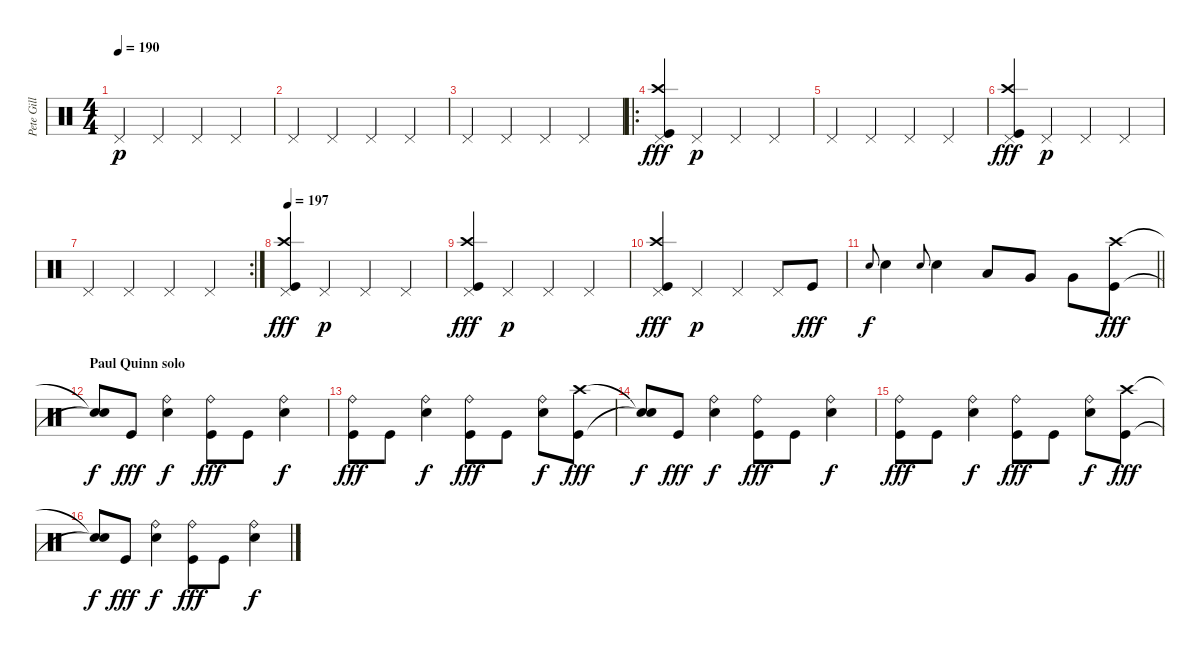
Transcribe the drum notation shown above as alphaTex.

\track ("Pete Gill" "Pete Gill") {instrument percussion}
\staff {score}
\articulation defaults
\ts (4 4)
\tempo 190
\clef neutral
\ks c "Pedal Hi-Hat (hit)".4{dy p} "Pedal Hi-Hat (hit)".4 "Pedal Hi-Hat (hit)".4 "Pedal Hi-Hat (hit)".4
|
"Pedal Hi-Hat (hit)".4 "Pedal Hi-Hat (hit)".4 "Pedal Hi-Hat (hit)".4 "Pedal Hi-Hat (hit)".4 |
"Pedal Hi-Hat (hit)".4 "Pedal Hi-Hat (hit)".4 "Pedal Hi-Hat (hit)".4 "Pedal Hi-Hat (hit)".4 |
\ro
("Pedal Hi-Hat (hit)" "Crash high (hit)" "Kick (hit)").4{dy fff} "Pedal Hi-Hat (hit)".4{dy p} "Pedal Hi-Hat (hit)".4 "Pedal Hi-Hat (hit)".4 |
"Pedal Hi-Hat (hit)".4 "Pedal Hi-Hat (hit)".4 "Pedal Hi-Hat (hit)".4 "Pedal Hi-Hat (hit)".4 |
("Pedal Hi-Hat (hit)" "Crash high (hit)" "Kick (hit)").4{dy fff} "Pedal Hi-Hat (hit)".4{dy p} "Pedal Hi-Hat (hit)".4 "Pedal Hi-Hat (hit)".4 |
\rc 2 "Pedal Hi-Hat (hit)".4 "Pedal Hi-Hat (hit)".4 "Pedal Hi-Hat (hit)".4 "Pedal Hi-Hat (hit)".4
|
\tempo 197
("Pedal Hi-Hat (hit)" "Crash high (hit)" "Kick (hit)").4{dy fff} "Pedal Hi-Hat (hit)".4{dy p} "Pedal Hi-Hat (hit)".4 "Pedal Hi-Hat (hit)".4 |
("Pedal Hi-Hat (hit)" "Crash high (hit)" "Kick (hit)").4{dy fff} "Pedal Hi-Hat (hit)".4{dy p} "Pedal Hi-Hat (hit)".4 "Pedal Hi-Hat (hit)".4 |
("Pedal Hi-Hat (hit)" "Crash high (hit)" "Kick (hit)").4{dy fff} "Pedal Hi-Hat (hit)".4{dy p} "Pedal Hi-Hat (hit)".4 "Pedal Hi-Hat (hit)".8 "Kick (hit)".8{dy fff} |
\barLineRight lightlight "Electric Snare (hit)".8{gr onbeat dy f} "Electric Snare (hit)".4 "Electric Snare (hit)".8{gr onbeat} "Electric Snare (hit)".4 "Low Tom (hit)".8 "Very Low Tom (hit)".8 "Very Low Tom (hit)".8
("Crash high (hit)" "Kick (hit)").8{dy fff} |
\section ("" "Paul Quinn solo")
("Snare (hit)"{t} "Snare (hit)"{t}).8{dy f} "Kick (hit)".8{dy fff} ("Ride (bell)" "Electric Snare (hit)").4{dy f} ("Ride (bell)" "Kick (hit)").8{dy fff} "Kick (hit)".8 ("Ride (bell)" "Electric Snare (hit)").4{dy f} |
("Ride (bell)" "Kick (hit)").8{dy fff} "Kick (hit)".8 ("Ride (bell)" "Electric Snare (hit)").4{dy f} ("Ride (bell)" "Kick (hit)").8{dy fff} "Kick (hit)".8 ("Ride (bell)" "Electric Snare (hit)").8{dy f} ("Crash high (hit)" "Kick (hit)").8{dy fff} |
("Snare (hit)"{t} "Snare (hit)"{t}).8{dy f} "Kick (hit)".8{dy fff} ("Ride (bell)" "Electric Snare (hit)").4{dy f} ("Ride (bell)" "Kick (hit)").8{dy fff} "Kick (hit)".8 ("Ride (bell)" "Electric Snare (hit)").4{dy f} |
("Ride (bell)" "Kick (hit)").8{dy fff} "Kick (hit)".8 ("Ride (bell)" "Electric Snare (hit)").4{dy f} ("Ride (bell)" "Kick (hit)").8{dy fff} "Kick (hit)".8 ("Ride (bell)" "Electric Snare (hit)").8{dy f} ("Crash high (hit)" "Kick (hit)").8{dy fff} |
("Snare (hit)"{t} "Snare (hit)"{t}).8{dy f} "Kick (hit)".8{dy fff} ("Ride (bell)" "Electric Snare (hit)").4{dy f} ("Ride (bell)" "Kick (hit)").8{dy fff} "Kick (hit)".8 ("Ride (bell)" "Electric Snare (hit)").4{dy f}
